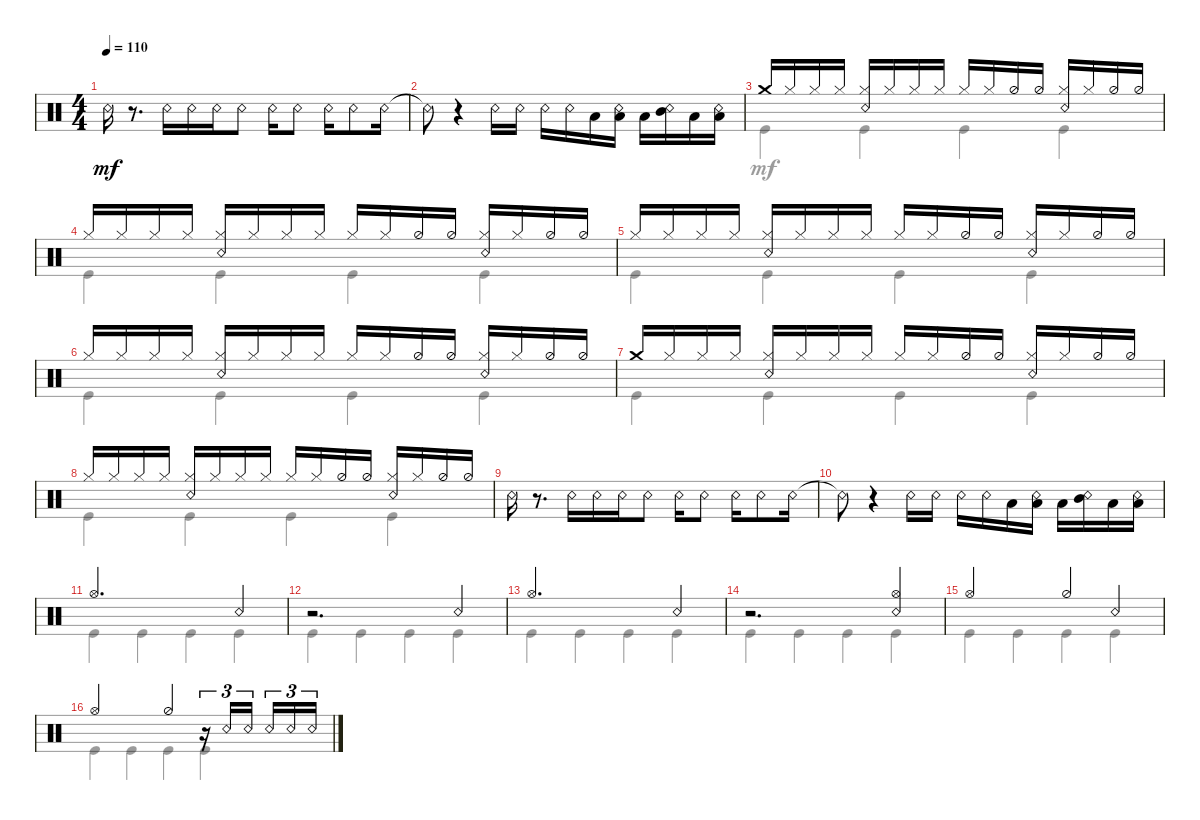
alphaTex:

\defaultSystemsLayout 4
\bracketExtendMode groupsimilarinstruments
\singleTrackTrackNamePolicy hidden
\multiTrackTrackNamePolicy hidden
\firstSystemTrackNameOrientation horizontal
\otherSystemsTrackNameOrientation horizontal
\track ("Максим Удалов" "Drums") {instrument percussion}
\staff {score}
\articulation defaults
\voice
\ts (4 4)
\tempo 110
\clef neutral
\scale
1.02648
\ks c "Snare (rim shot)".16{dy mf}
r.8{d} "Snare (rim shot)".16 "Snare (rim shot)".16 "Snare (rim shot)".16 "Snare (rim shot)".8 "Snare (rim shot)".16 "Snare (rim shot)".8 "Snare (rim shot)".16 "Snare (rim shot)".8 "Snare (rim shot)".16 |
\scale
0.973518 "Snare (rim shot)"{t}.8 r.4 "Snare (rim shot)".16 "Snare (rim shot)".16 "Snare (rim shot)".16 "Snare (rim shot)".16 "Low Tom (hit)".16 ("Low Tom (hit)" "Snare (rim shot)").16 "Low Tom (hit)".16 ("Mid Tom (hit)" "Snare (rim shot)").16 "Low Tom (hit)".16 ("Low Tom (hit)" "Snare (rim shot)").16 |
\scale
1.02648 "Crash medium (hit)".16 "Hi-Hat (closed)".16 "Hi-Hat (closed)".16 "Hi-Hat (closed)".16 ("Hi-Hat (closed)" "Snare (rim shot)").16 "Hi-Hat (closed)".16 "Hi-Hat (closed)".16 "Hi-Hat (closed)".16 "Hi-Hat (closed)".16 "Hi-Hat (closed)".16 "Hi-Hat (half)".16 "Hi-Hat (half)".16 ("Hi-Hat (closed)" "Snare (rim shot)").16 "Hi-Hat (closed)".16 "Hi-Hat (half)".16 "Hi-Hat (half)".16 |
\scale
0.973518 "Hi-Hat (closed)".16 "Hi-Hat (closed)".16 "Hi-Hat (closed)".16 "Hi-Hat (closed)".16 ("Hi-Hat (closed)" "Snare (rim shot)").16 "Hi-Hat (closed)".16 "Hi-Hat (closed)".16 "Hi-Hat (closed)".16 "Hi-Hat (closed)".16 "Hi-Hat (closed)".16 "Hi-Hat (half)".16 "Hi-Hat (half)".16 ("Hi-Hat (closed)" "Snare (rim shot)").16 "Hi-Hat (closed)".16 "Hi-Hat (half)".16 "Hi-Hat (half)".16 |
\scale
1.02648 "Hi-Hat (closed)".16 "Hi-Hat (closed)".16 "Hi-Hat (closed)".16 "Hi-Hat (closed)".16 ("Hi-Hat (closed)" "Snare (rim shot)").16 "Hi-Hat (closed)".16 "Hi-Hat (closed)".16 "Hi-Hat (closed)".16 "Hi-Hat (closed)".16 "Hi-Hat (closed)".16 "Hi-Hat (half)".16 "Hi-Hat (half)".16 ("Hi-Hat (closed)" "Snare (rim shot)").16 "Hi-Hat (closed)".16 "Hi-Hat (half)".16 "Hi-Hat (half)".16 |
\scale
0.973518 "Hi-Hat (closed)".16 "Hi-Hat (closed)".16 "Hi-Hat (closed)".16 "Hi-Hat (closed)".16 ("Hi-Hat (closed)" "Snare (rim shot)").16 "Hi-Hat (closed)".16 "Hi-Hat (closed)".16 "Hi-Hat (closed)".16 "Hi-Hat (closed)".16 "Hi-Hat (closed)".16 "Hi-Hat (half)".16 "Hi-Hat (half)".16 ("Hi-Hat (closed)" "Snare (rim shot)").16 "Hi-Hat (closed)".16 "Hi-Hat (half)".16 "Hi-Hat (half)".16 |
\scale
1.02648 "Crash medium (hit)".16 "Hi-Hat (closed)".16 "Hi-Hat (closed)".16 "Hi-Hat (closed)".16 ("Hi-Hat (closed)" "Snare (rim shot)").16 "Hi-Hat (closed)".16 "Hi-Hat (closed)".16 "Hi-Hat (closed)".16 "Hi-Hat (closed)".16 "Hi-Hat (closed)".16 "Hi-Hat (half)".16 "Hi-Hat (half)".16 ("Hi-Hat (closed)" "Snare (rim shot)").16 "Hi-Hat (closed)".16 "Hi-Hat (half)".16 "Hi-Hat (half)".16 |
\scale
0.973518 "Hi-Hat (closed)".16 "Hi-Hat (closed)".16 "Hi-Hat (closed)".16 "Hi-Hat (closed)".16 ("Hi-Hat (closed)" "Snare (rim shot)").16 "Hi-Hat (closed)".16 "Hi-Hat (closed)".16 "Hi-Hat (closed)".16 "Hi-Hat (closed)".16 "Hi-Hat (closed)".16 "Hi-Hat (half)".16 "Hi-Hat (half)".16 ("Hi-Hat (closed)" "Snare (rim shot)").16 "Hi-Hat (closed)".16 "Hi-Hat (half)".16 "Hi-Hat (half)".16 |
\scale
1.02648 "Snare (rim shot)".16 r.8{d} "Snare (rim shot)".16 "Snare (rim shot)".16 "Snare (rim shot)".16 "Snare (rim shot)".8 "Snare (rim shot)".16 "Snare (rim shot)".8 "Snare (rim shot)".16 "Snare (rim shot)".8 "Snare (rim shot)".16 |
\scale
0.973518 "Snare (rim shot)"{t}.8 r.4 "Snare (rim shot)".16 "Snare (rim shot)".16 "Snare (rim shot)".16 "Snare (rim shot)".16 "Low Tom (hit)".16 ("Low Tom (hit)" "Snare (rim shot)").16 "Low Tom (hit)".16 ("Mid Tom (hit)" "Snare (rim shot)").16 "Low Tom (hit)".16 ("Low Tom (hit)" "Snare (rim shot)").16 |
\scale
1.02648 "Hi-Hat (open)".2{d} "Snare (rim shot)".4 |
\scale
0.973518 r.2{d} "Snare (rim shot)".4 |
\scale
1.02648 "Hi-Hat (open)".2{d} "Snare (rim shot)".4 |
\scale
0.973518 r.2{d} ("Snare (rim shot)" "Hi-Hat (open)").4 |
\scale
1.02648 "Hi-Hat (open)".2 "Hi-Hat (half)".4 "Snare (rim shot)".4 |
\scale
0.973518 "Hi-Hat (open)".2 "Hi-Hat (half)".4 r.16{tu (3 2)} "Snare (rim shot)".16{tu (3 2)} "Snare (rim shot)".16{tu (3 2)} "Snare (rim shot)".16{tu (3 2)} "Snare (rim shot)".16{tu (3 2)} "Snare (rim shot)".16{tu (3 2)}
\voice
\clef neutral
\ottava regular
\simile none
\scale
1.02648
\ks c
|
\scale
0.973518 |
\scale
1.02648 "Kick (hit)".4 "Kick (hit)".4 "Kick (hit)".4 "Kick (hit)".4 |
\scale
0.973518 "Kick (hit)".4 "Kick (hit)".4 "Kick (hit)".4 "Kick (hit)".4 |
\scale
1.02648 "Kick (hit)".4 "Kick (hit)".4 "Kick (hit)".4 "Kick (hit)".4 |
\scale
0.973518 "Kick (hit)".4 "Kick (hit)".4 "Kick (hit)".4 "Kick (hit)".4 |
\scale
1.02648 "Kick (hit)".4 "Kick (hit)".4 "Kick (hit)".4 "Kick (hit)".4 |
\scale
0.973518 "Kick (hit)".4 "Kick (hit)".4 "Kick (hit)".4 "Kick (hit)".4 |
\scale
1.02648 |
\scale
0.973518 |
\scale
1.02648 "Kick (hit)".4 "Kick (hit)".4 "Kick (hit)".4 "Kick (hit)".4 |
\scale
0.973518 "Kick (hit)".4 "Kick (hit)".4 "Kick (hit)".4 "Kick (hit)".4 |
\scale
1.02648 "Kick (hit)".4 "Kick (hit)".4 "Kick (hit)".4 "Kick (hit)".4 |
\scale
0.973518 "Kick (hit)".4 "Kick (hit)".4 "Kick (hit)".4 "Kick (hit)".4 |
\scale
1.02648 "Kick (hit)".4 "Kick (hit)".4 "Kick (hit)".4 "Kick (hit)".4 |
\scale
0.973518 "Kick (hit)".4 "Kick (hit)".4 "Kick (hit)".4 "Kick (hit)".4
